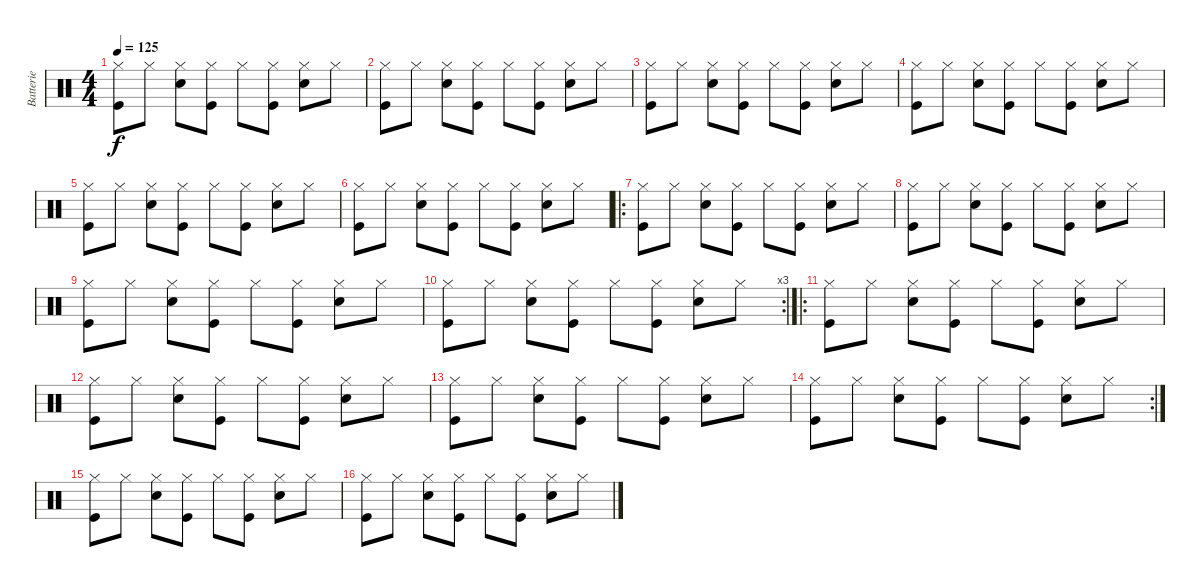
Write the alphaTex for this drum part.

\track ("Batterie" "Batterie") {instrument percussion}
\staff {score}
\articulation defaults
\ts (4 4)
\tempo 125
\clef neutral
\ks c
("Hi-Hat (closed)" "Kick (hit)").8{dy f} "Hi-Hat (closed)".8 ("Hi-Hat (closed)" "Snare (hit) 2").8 ("Hi-Hat (closed)" "Kick (hit)").8 "Hi-Hat (closed)".8 ("Hi-Hat (closed)" "Kick (hit)").8 ("Hi-Hat (closed)" "Snare (hit) 2").8 "Hi-Hat (closed)".8 |
("Hi-Hat (closed)" "Kick (hit)").8 "Hi-Hat (closed)".8 ("Hi-Hat (closed)" "Snare (hit) 2").8 ("Hi-Hat (closed)" "Kick (hit)").8 "Hi-Hat (closed)".8 ("Hi-Hat (closed)" "Kick (hit)").8 ("Hi-Hat (closed)" "Snare (hit) 2").8 "Hi-Hat (closed)".8 |
("Hi-Hat (closed)" "Kick (hit)").8 "Hi-Hat (closed)".8 ("Hi-Hat (closed)" "Snare (hit) 2").8 ("Hi-Hat (closed)" "Kick (hit)").8 "Hi-Hat (closed)".8 ("Hi-Hat (closed)" "Kick (hit)").8 ("Hi-Hat (closed)" "Snare (hit) 2").8 "Hi-Hat (closed)".8 |
("Hi-Hat (closed)" "Kick (hit)").8 "Hi-Hat (closed)".8 ("Hi-Hat (closed)" "Snare (hit) 2").8 ("Hi-Hat (closed)" "Kick (hit)").8 "Hi-Hat (closed)".8 ("Hi-Hat (closed)" "Kick (hit)").8 ("Hi-Hat (closed)" "Snare (hit) 2").8 "Hi-Hat (closed)".8 |
("Hi-Hat (closed)" "Kick (hit)").8 "Hi-Hat (closed)".8 ("Hi-Hat (closed)" "Snare (hit) 2").8 ("Hi-Hat (closed)" "Kick (hit)").8 "Hi-Hat (closed)".8 ("Hi-Hat (closed)" "Kick (hit)").8 ("Hi-Hat (closed)" "Snare (hit) 2").8 "Hi-Hat (closed)".8 |
("Hi-Hat (closed)" "Kick (hit)").8 "Hi-Hat (closed)".8 ("Hi-Hat (closed)" "Snare (hit) 2").8 ("Hi-Hat (closed)" "Kick (hit)").8 "Hi-Hat (closed)".8 ("Hi-Hat (closed)" "Kick (hit)").8 ("Hi-Hat (closed)" "Snare (hit) 2").8 "Hi-Hat (closed)".8 |
\ro
("Hi-Hat (closed)" "Kick (hit)").8 "Hi-Hat (closed)".8 ("Hi-Hat (closed)" "Snare (hit) 2").8 ("Hi-Hat (closed)" "Kick (hit)").8 "Hi-Hat (closed)".8 ("Hi-Hat (closed)" "Kick (hit)").8 ("Hi-Hat (closed)" "Snare (hit) 2").8 "Hi-Hat (closed)".8 |
("Hi-Hat (closed)" "Kick (hit)").8 "Hi-Hat (closed)".8 ("Hi-Hat (closed)" "Snare (hit) 2").8 ("Hi-Hat (closed)" "Kick (hit)").8 "Hi-Hat (closed)".8 ("Hi-Hat (closed)" "Kick (hit)").8 ("Hi-Hat (closed)" "Snare (hit) 2").8 "Hi-Hat (closed)".8 |
("Hi-Hat (closed)" "Kick (hit)").8 "Hi-Hat (closed)".8 ("Hi-Hat (closed)" "Snare (hit) 2").8 ("Hi-Hat (closed)" "Kick (hit)").8 "Hi-Hat (closed)".8 ("Hi-Hat (closed)" "Kick (hit)").8 ("Hi-Hat (closed)" "Snare (hit) 2").8 "Hi-Hat (closed)".8 |
\rc 3
("Hi-Hat (closed)" "Kick (hit)").8 "Hi-Hat (closed)".8 ("Hi-Hat (closed)" "Snare (hit) 2").8 ("Hi-Hat (closed)" "Kick (hit)").8 "Hi-Hat (closed)".8 ("Hi-Hat (closed)" "Kick (hit)").8 ("Hi-Hat (closed)" "Snare (hit) 2").8 "Hi-Hat (closed)".8 |
\ro
("Hi-Hat (closed)" "Kick (hit)").8 "Hi-Hat (closed)".8 ("Hi-Hat (closed)" "Snare (hit) 2").8 ("Hi-Hat (closed)" "Kick (hit)").8 "Hi-Hat (closed)".8 ("Hi-Hat (closed)" "Kick (hit)").8 ("Hi-Hat (closed)" "Snare (hit) 2").8 "Hi-Hat (closed)".8 |
("Hi-Hat (closed)" "Kick (hit)").8 "Hi-Hat (closed)".8 ("Hi-Hat (closed)" "Snare (hit) 2").8 ("Hi-Hat (closed)" "Kick (hit)").8 "Hi-Hat (closed)".8 ("Hi-Hat (closed)" "Kick (hit)").8 ("Hi-Hat (closed)" "Snare (hit) 2").8 "Hi-Hat (closed)".8 |
("Hi-Hat (closed)" "Kick (hit)").8 "Hi-Hat (closed)".8 ("Hi-Hat (closed)" "Snare (hit) 2").8 ("Hi-Hat (closed)" "Kick (hit)").8 "Hi-Hat (closed)".8 ("Hi-Hat (closed)" "Kick (hit)").8 ("Hi-Hat (closed)" "Snare (hit) 2").8 "Hi-Hat (closed)".8 |
\rc 2
("Hi-Hat (closed)" "Kick (hit)").8 "Hi-Hat (closed)".8 ("Hi-Hat (closed)" "Snare (hit) 2").8 ("Hi-Hat (closed)" "Kick (hit)").8 "Hi-Hat (closed)".8 ("Hi-Hat (closed)" "Kick (hit)").8 ("Hi-Hat (closed)" "Snare (hit) 2").8 "Hi-Hat (closed)".8 |
("Hi-Hat (closed)" "Kick (hit)").8 "Hi-Hat (closed)".8 ("Hi-Hat (closed)" "Snare (hit) 2").8 ("Hi-Hat (closed)" "Kick (hit)").8 "Hi-Hat (closed)".8 ("Hi-Hat (closed)" "Kick (hit)").8 ("Hi-Hat (closed)" "Snare (hit) 2").8 "Hi-Hat (closed)".8 |
("Hi-Hat (closed)" "Kick (hit)").8 "Hi-Hat (closed)".8 ("Hi-Hat (closed)" "Snare (hit) 2").8 ("Hi-Hat (closed)" "Kick (hit)").8 "Hi-Hat (closed)".8 ("Hi-Hat (closed)" "Kick (hit)").8 ("Hi-Hat (closed)" "Snare (hit) 2").8 "Hi-Hat (closed)".8
